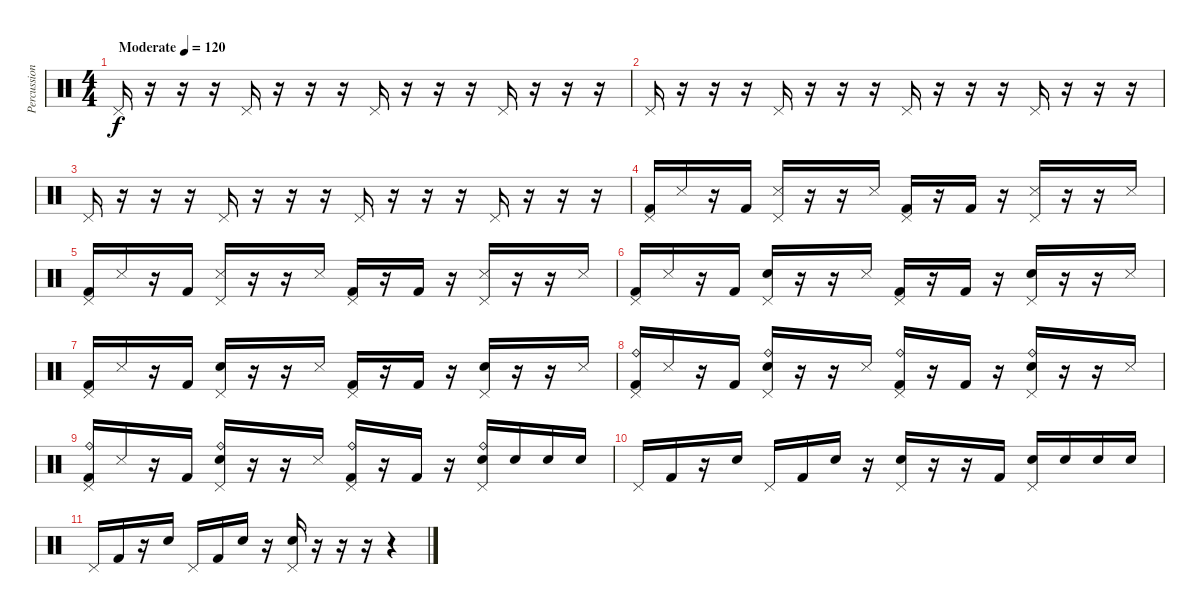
\track ("Percussion" "Percussion") {instrument percussion}
\staff {score}
\articulation defaults
\ts (4 4)
\tempo (120 "Moderate")
\clef neutral
\ks c "Pedal Hi-Hat (hit)".16{dy f}
r.16 r.16 r.16 "Pedal Hi-Hat (hit)".16 r.16 r.16 r.16 "Pedal Hi-Hat (hit)".16 r.16 r.16 r.16 "Pedal Hi-Hat (hit)".16 r.16 r.16 r.16 |
"Pedal Hi-Hat (hit)".16 r.16 r.16 r.16 "Pedal Hi-Hat (hit)".16 r.16 r.16 r.16 "Pedal Hi-Hat (hit)".16 r.16 r.16 r.16 "Pedal Hi-Hat (hit)".16 r.16 r.16 r.16 |
"Pedal Hi-Hat (hit)".16 r.16 r.16 r.16 "Pedal Hi-Hat (hit)".16 r.16 r.16 r.16 "Pedal Hi-Hat (hit)".16 r.16 r.16 r.16 "Pedal Hi-Hat (hit)".16 r.16 r.16 r.16 |
("Pedal Hi-Hat (hit)" "Kick (hit) 2").16 "Snare (side stick) 3".16 r.16 "Kick (hit) 2".16 ("Snare (side stick) 3" "Pedal Hi-Hat (hit)").16 r.16 r.16 "Snare (side stick) 3".16 ("Pedal Hi-Hat (hit)" "Kick (hit) 2").16 r.16 "Kick (hit) 2".16 r.16 ("Snare (side stick) 3" "Pedal Hi-Hat (hit)").16 r.16 r.16 "Snare (side stick) 3".16 |
("Pedal Hi-Hat (hit)" "Kick (hit) 2").16 "Snare (side stick) 3".16 r.16 "Kick (hit) 2".16 ("Snare (side stick) 3" "Pedal Hi-Hat (hit)").16 r.16 r.16 "Snare (side stick) 3".16 ("Pedal Hi-Hat (hit)" "Kick (hit) 2").16 r.16 "Kick (hit) 2".16 r.16 ("Snare (side stick) 3" "Pedal Hi-Hat (hit)").16 r.16 r.16 "Snare (side stick) 3".16 |
("Pedal Hi-Hat (hit)" "Kick (hit) 2").16 "Snare (side stick) 3".16 r.16 "Kick (hit) 2".16 ("Electric Snare (hit)" "Pedal Hi-Hat (hit)").16 r.16 r.16 "Snare (side stick) 3".16 ("Pedal Hi-Hat (hit)" "Kick (hit) 2").16 r.16 "Kick (hit) 2".16 r.16 ("Electric Snare (hit)" "Pedal Hi-Hat (hit)").16 r.16 r.16 "Snare (side stick) 3".16 |
("Pedal Hi-Hat (hit)" "Kick (hit) 2").16 "Snare (side stick) 3".16 r.16 "Kick (hit) 2".16 ("Electric Snare (hit)" "Pedal Hi-Hat (hit)").16 r.16 r.16 "Snare (side stick) 3".16 ("Pedal Hi-Hat (hit)" "Kick (hit) 2").16 r.16 "Kick (hit) 2".16 r.16 ("Electric Snare (hit)" "Pedal Hi-Hat (hit)").16 r.16 r.16 "Snare (side stick) 3".16 |
("Ride (bell)" "Pedal Hi-Hat (hit)" "Kick (hit) 2").16 "Snare (side stick) 3".16 r.16 "Kick (hit) 2".16 ("Ride (bell)" "Electric Snare (hit)" "Pedal Hi-Hat (hit)").16 r.16 r.16 "Snare (side stick) 3".16 ("Ride (bell)" "Pedal Hi-Hat (hit)" "Kick (hit) 2").16 r.16 "Kick (hit) 2".16 r.16 ("Ride (bell)" "Electric Snare (hit)" "Pedal Hi-Hat (hit)").16 r.16 r.16 "Snare (side stick) 3".16 |
("Ride (bell)" "Pedal Hi-Hat (hit)" "Kick (hit) 2").16 "Snare (side stick) 3".16 r.16 "Kick (hit) 2".16 ("Ride (bell)" "Electric Snare (hit)" "Pedal Hi-Hat (hit)").16 r.16 r.16 "Snare (side stick) 3".16 ("Ride (bell)" "Pedal Hi-Hat (hit)" "Kick (hit) 2").16 r.16 "Kick (hit) 2".16 r.16 ("Ride (bell)" "Electric Snare (hit)" "Pedal Hi-Hat (hit)").16 "Electric Snare (hit)".16 "Electric Snare (hit)".16 "Electric Snare (hit)".16 |
"Pedal Hi-Hat (hit)".16 "Kick (hit) 2".16 r.16 "Electric Snare (hit)".16 "Pedal Hi-Hat (hit)".16 "Kick (hit) 2".16 "Electric Snare (hit)".16 r.16 ("Electric Snare (hit)" "Pedal Hi-Hat (hit)").16 r.16 r.16 "Kick (hit) 2".16 ("Electric Snare (hit)" "Pedal Hi-Hat (hit)").16 "Electric Snare (hit)".16 "Electric Snare (hit)".16 "Electric Snare (hit)".16 |
"Pedal Hi-Hat (hit)".16 "Kick (hit) 2".16 r.16 "Electric Snare (hit)".16 "Pedal Hi-Hat (hit)".16 "Kick (hit) 2".16 "Electric Snare (hit)".16 r.16 ("Electric Snare (hit)" "Pedal Hi-Hat (hit)").16 r.16 r.16 r.16 r.4
